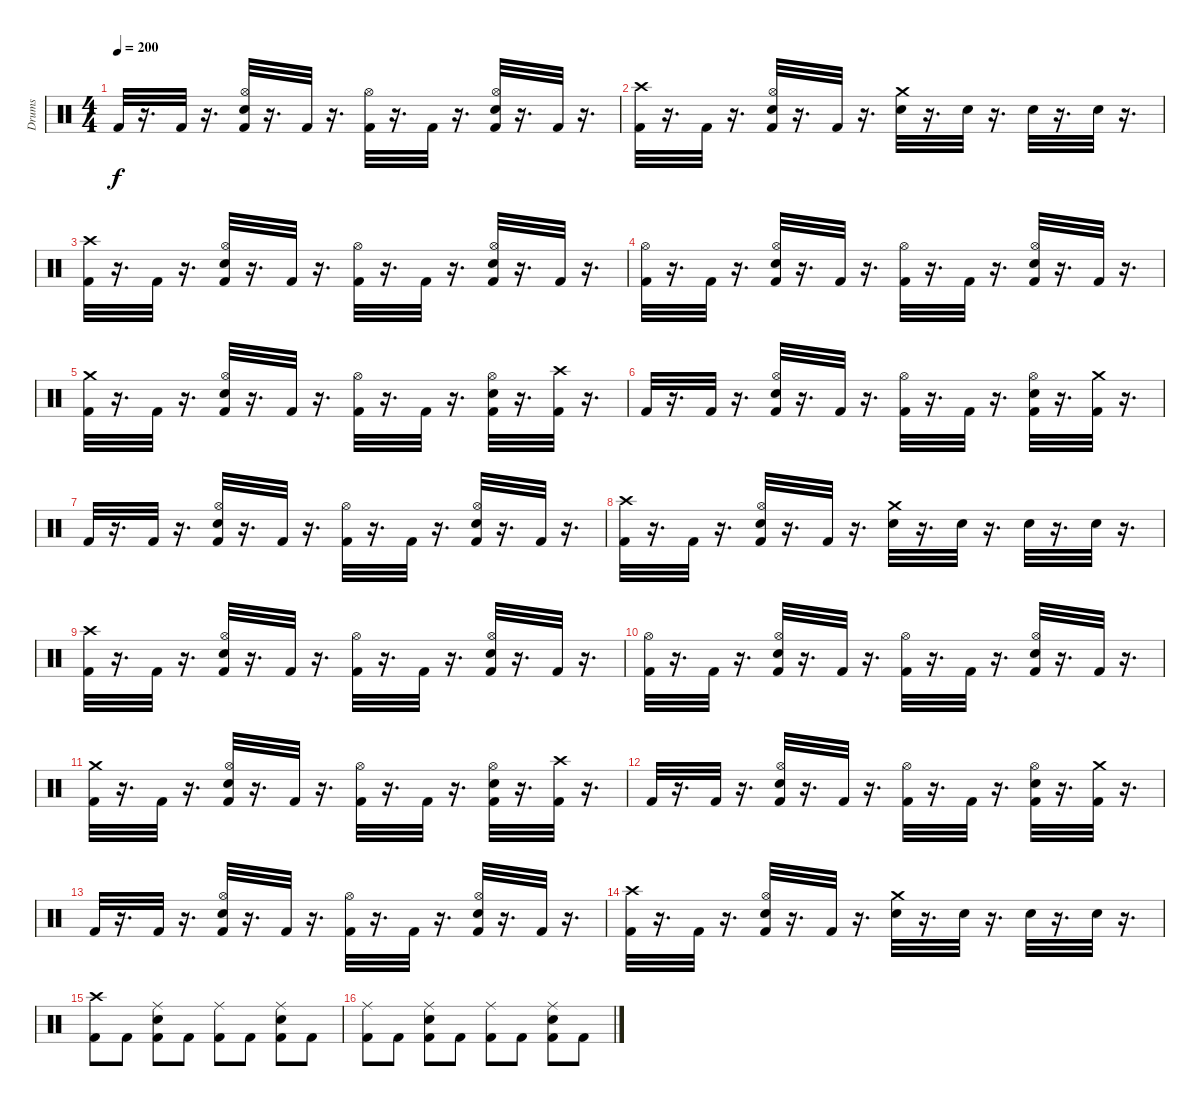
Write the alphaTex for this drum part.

\track ("Drums" "Drums") {instrument percussion}
\staff {score}
\articulation defaults
\ts (4 4)
\tempo 200
\clef neutral
\ks c "Kick (hit) 2".32{dy f}
r.16{d} "Kick (hit) 2".32 r.16{d} ("Hi-Hat (open)" "Kick (hit) 2" "Electric Snare (hit)").32 r.16{d} "Kick (hit) 2".32 r.16{d} ("Hi-Hat (open)" "Kick (hit) 2").32 r.16{d} "Kick (hit) 2".32 r.16{d} ("Hi-Hat (open)" "Electric Snare (hit)" "Kick (hit) 2").32 r.16{d} "Kick (hit) 2".32 r.16{d} |
("Crash high (hit)" "Kick (hit) 2").32 r.16{d} "Kick (hit) 2".32 r.16{d} ("Electric Snare (hit)" "Kick (hit) 2" "Hi-Hat (open)").32 r.16{d} "Kick (hit) 2".32 r.16{d} ("Electric Snare (hit)" "Crash medium (hit)").32 r.16{d} "Electric Snare (hit)".32 r.16{d} "Electric Snare (hit)".32 r.16{d} "Electric Snare (hit)".32 r.16{d} |
("Kick (hit) 2" "Crash high (hit)").32 r.16{d} "Kick (hit) 2".32 r.16{d} ("Hi-Hat (open)" "Kick (hit) 2" "Electric Snare (hit)").32 r.16{d} "Kick (hit) 2".32 r.16{d} ("Hi-Hat (open)" "Kick (hit) 2").32 r.16{d} "Kick (hit) 2".32 r.16{d} ("Hi-Hat (open)" "Kick (hit) 2" "Electric Snare (hit)").32 r.16{d} "Kick (hit) 2".32 r.16{d} |
("Hi-Hat (open)" "Kick (hit) 2").32 r.16{d} "Kick (hit) 2".32 r.16{d} ("Hi-Hat (open)" "Electric Snare (hit)" "Kick (hit) 2").32 r.16{d} "Kick (hit) 2".32 r.16{d} ("Hi-Hat (open)" "Kick (hit) 2").32 r.16{d} "Kick (hit) 2".32 r.16{d} ("Hi-Hat (open)" "Electric Snare (hit)" "Kick (hit) 2").32 r.16{d} "Kick (hit) 2".32 r.16{d} |
("Kick (hit) 2" "Crash medium (hit)").32 r.16{d} "Kick (hit) 2".32 r.16{d} ("Kick (hit) 2" "Electric Snare (hit)" "Hi-Hat (open)").32 r.16{d} "Kick (hit) 2".32 r.16{d} ("Kick (hit) 2" "Hi-Hat (open)").32 r.16{d} "Kick (hit) 2".32 r.16{d} ("Kick (hit) 2" "Electric Snare (hit)" "Hi-Hat (open)").32 r.16{d} ("Kick (hit) 2" "Crash high (hit)").32 r.16{d} |
"Kick (hit) 2".32 r.16{d} "Kick (hit) 2".32 r.16{d} ("Hi-Hat (open)" "Kick (hit) 2" "Electric Snare (hit)").32 r.16{d} "Kick (hit) 2".32 r.16{d} ("Hi-Hat (open)" "Kick (hit) 2").32 r.16{d} "Kick (hit) 2".32 r.16{d} ("Hi-Hat (open)" "Electric Snare (hit)" "Kick (hit) 2").32 r.16{d} ("Crash medium (hit)" "Kick (hit) 2").32 r.16{d} |
"Kick (hit) 2".32 r.16{d} "Kick (hit) 2".32 r.16{d} ("Hi-Hat (open)" "Kick (hit) 2" "Electric Snare (hit)").32 r.16{d} "Kick (hit) 2".32 r.16{d} ("Hi-Hat (open)" "Kick (hit) 2").32 r.16{d} "Kick (hit) 2".32 r.16{d} ("Hi-Hat (open)" "Electric Snare (hit)" "Kick (hit) 2").32 r.16{d} "Kick (hit) 2".32 r.16{d} |
("Crash high (hit)" "Kick (hit) 2").32 r.16{d} "Kick (hit) 2".32 r.16{d} ("Electric Snare (hit)" "Kick (hit) 2" "Hi-Hat (open)").32 r.16{d} "Kick (hit) 2".32 r.16{d} ("Electric Snare (hit)" "Crash medium (hit)").32 r.16{d} "Electric Snare (hit)".32 r.16{d} "Electric Snare (hit)".32 r.16{d} "Electric Snare (hit)".32 r.16{d} |
("Kick (hit) 2" "Crash high (hit)").32 r.16{d} "Kick (hit) 2".32 r.16{d} ("Hi-Hat (open)" "Kick (hit) 2" "Electric Snare (hit)").32 r.16{d} "Kick (hit) 2".32 r.16{d} ("Hi-Hat (open)" "Kick (hit) 2").32 r.16{d} "Kick (hit) 2".32 r.16{d} ("Hi-Hat (open)" "Kick (hit) 2" "Electric Snare (hit)").32 r.16{d} "Kick (hit) 2".32 r.16{d} |
("Hi-Hat (open)" "Kick (hit) 2").32 r.16{d} "Kick (hit) 2".32 r.16{d} ("Hi-Hat (open)" "Electric Snare (hit)" "Kick (hit) 2").32 r.16{d} "Kick (hit) 2".32 r.16{d} ("Hi-Hat (open)" "Kick (hit) 2").32 r.16{d} "Kick (hit) 2".32 r.16{d} ("Hi-Hat (open)" "Electric Snare (hit)" "Kick (hit) 2").32 r.16{d} "Kick (hit) 2".32 r.16{d} |
("Kick (hit) 2" "Crash medium (hit)").32 r.16{d} "Kick (hit) 2".32 r.16{d} ("Kick (hit) 2" "Electric Snare (hit)" "Hi-Hat (open)").32 r.16{d} "Kick (hit) 2".32 r.16{d} ("Kick (hit) 2" "Hi-Hat (open)").32 r.16{d} "Kick (hit) 2".32 r.16{d} ("Kick (hit) 2" "Electric Snare (hit)" "Hi-Hat (open)").32 r.16{d} ("Kick (hit) 2" "Crash high (hit)").32 r.16{d} |
"Kick (hit) 2".32 r.16{d} "Kick (hit) 2".32 r.16{d} ("Hi-Hat (open)" "Kick (hit) 2" "Electric Snare (hit)").32 r.16{d} "Kick (hit) 2".32 r.16{d} ("Hi-Hat (open)" "Kick (hit) 2").32 r.16{d} "Kick (hit) 2".32 r.16{d} ("Hi-Hat (open)" "Electric Snare (hit)" "Kick (hit) 2").32 r.16{d} ("Crash medium (hit)" "Kick (hit) 2").32 r.16{d} |
"Kick (hit) 2".32 r.16{d} "Kick (hit) 2".32 r.16{d} ("Hi-Hat (open)" "Kick (hit) 2" "Electric Snare (hit)").32 r.16{d} "Kick (hit) 2".32 r.16{d} ("Hi-Hat (open)" "Kick (hit) 2").32 r.16{d} "Kick (hit) 2".32 r.16{d} ("Hi-Hat (open)" "Electric Snare (hit)" "Kick (hit) 2").32 r.16{d} "Kick (hit) 2".32 r.16{d} |
("Crash high (hit)" "Kick (hit) 2").32 r.16{d} "Kick (hit) 2".32 r.16{d} ("Electric Snare (hit)" "Kick (hit) 2" "Hi-Hat (open)").32 r.16{d} "Kick (hit) 2".32 r.16{d} ("Electric Snare (hit)" "Crash medium (hit)").32 r.16{d} "Electric Snare (hit)".32 r.16{d} "Electric Snare (hit)".32 r.16{d} "Electric Snare (hit)".32 r.16{d} |
("Crash high (hit)" "Kick (hit) 2").8 "Kick (hit) 2".8 ("Ride (middle)" "Electric Snare (hit)" "Kick (hit) 2").8 "Kick (hit) 2".8 ("Ride (middle)" "Kick (hit) 2").8 "Kick (hit) 2".8 ("Ride (middle)" "Electric Snare (hit)" "Kick (hit) 2").8 "Kick (hit) 2".8 |
("Ride (middle)" "Kick (hit) 2").8 "Kick (hit) 2".8 ("Ride (middle)" "Electric Snare (hit)" "Kick (hit) 2").8 "Kick (hit) 2".8 ("Ride (middle)" "Kick (hit) 2").8 "Kick (hit) 2".8 ("Ride (middle)" "Electric Snare (hit)" "Kick (hit) 2").8 "Kick (hit) 2".8
